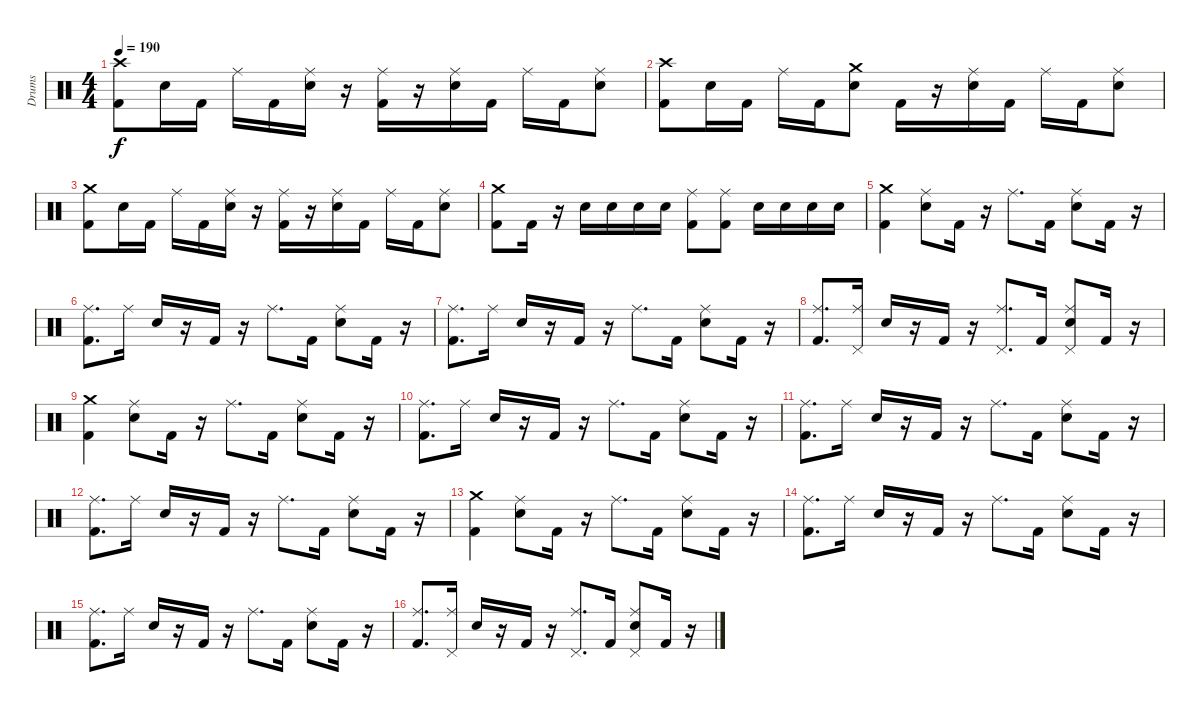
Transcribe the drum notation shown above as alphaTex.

\track ("Drums" "Drums") {instrument percussion}
\staff {score}
\articulation defaults
\ts (4 4)
\tempo 190
\clef neutral
\ks c
("Kick (hit) 2" "Crash high (hit)").8{dy f} "Electric Snare (hit)".16 "Kick (hit) 2".16 "Ride (middle)".16 "Kick (hit) 2".16 ("Electric Snare (hit)" "Ride (middle)").16 r.16 ("Kick (hit) 2" "Ride (middle)").16 r.16 ("Electric Snare (hit)" "Ride (middle)").16 "Kick (hit) 2".16 "Ride (middle)".16 "Kick (hit) 2".16 ("Electric Snare (hit)" "Ride (middle)").8 |
("Kick (hit) 2" "Crash high (hit)").8 "Electric Snare (hit)".16 "Kick (hit) 2".16 "Ride (middle)".16 "Kick (hit) 2".16 ("Electric Snare (hit)" "Crash medium (hit)").8 "Kick (hit) 2".16 r.16 ("Electric Snare (hit)" "Ride (middle)").16 "Kick (hit) 2".16 "Ride (middle)".16 "Kick (hit) 2".16 ("Electric Snare (hit)" "Ride (middle)").8 |
("Kick (hit) 2" "Crash medium (hit)").8 "Electric Snare (hit)".16 "Kick (hit) 2".16 "Ride (middle)".16 "Kick (hit) 2".16 ("Electric Snare (hit)" "Ride (middle)").16 r.16 ("Kick (hit) 2" "Ride (middle)").16 r.16 ("Electric Snare (hit)" "Ride (middle)").16 "Kick (hit) 2".16 "Ride (middle)".16 "Kick (hit) 2".16 ("Electric Snare (hit)" "Ride (middle)").8 |
("Kick (hit) 2" "Crash medium (hit)").8 "Kick (hit) 2".16 r.16 "Electric Snare (hit)".16 "Electric Snare (hit)".16 "Electric Snare (hit)".16 "Electric Snare (hit)".16 ("Kick (hit) 2" "Ride (middle)").8 ("Kick (hit) 2" "Ride (middle)").8 "Electric Snare (hit)".16 "Electric Snare (hit)".16 "Electric Snare (hit)".16 "Electric Snare (hit)".16 |
("Kick (hit) 2" "Crash medium (hit)").4 ("Electric Snare (hit)" "Ride (middle)").8 "Kick (hit) 2".16 r.16 "Ride (middle)".8{d} "Kick (hit) 2".16 ("Electric Snare (hit)" "Ride (middle)").8 "Kick (hit) 2".16 r.16 |
("Kick (hit) 2" "Ride (middle)").8{d} "Ride (middle)".16 "Electric Snare (hit)".16 r.16 "Kick (hit) 2".16 r.16 "Ride (middle)".8{d} "Kick (hit) 2".16 ("Electric Snare (hit)" "Ride (middle)").8 "Kick (hit) 2".16 r.16 |
("Kick (hit) 2" "Ride (middle)").8{d} "Ride (middle)".16 "Electric Snare (hit)".16 r.16 "Kick (hit) 2".16 r.16 "Ride (middle)".8{d} "Kick (hit) 2".16 ("Electric Snare (hit)" "Ride (middle)").8 "Kick (hit) 2".16 r.16 |
("Kick (hit) 2" "Ride (middle)").8{d} ("Ride (middle)" "Pedal Hi-Hat (hit)").16 "Electric Snare (hit)".16 r.16 "Kick (hit) 2".16 r.16 ("Ride (middle)" "Pedal Hi-Hat (hit)").8{d} "Kick (hit) 2".16 ("Electric Snare (hit)" "Ride (middle)" "Pedal Hi-Hat (hit)").8 "Kick (hit) 2".16 r.16 |
("Kick (hit) 2" "Crash medium (hit)").4 ("Electric Snare (hit)" "Ride (middle)").8 "Kick (hit) 2".16 r.16 "Ride (middle)".8{d} "Kick (hit) 2".16 ("Electric Snare (hit)" "Ride (middle)").8 "Kick (hit) 2".16 r.16 |
("Kick (hit) 2" "Ride (middle)").8{d} "Ride (middle)".16 "Electric Snare (hit)".16 r.16 "Kick (hit) 2".16 r.16 "Ride (middle)".8{d} "Kick (hit) 2".16 ("Electric Snare (hit)" "Ride (middle)").8 "Kick (hit) 2".16 r.16 |
("Kick (hit) 2" "Ride (middle)").8{d} "Ride (middle)".16 "Electric Snare (hit)".16 r.16 "Kick (hit) 2".16 r.16 "Ride (middle)".8{d} "Kick (hit) 2".16 ("Electric Snare (hit)" "Ride (middle)").8 "Kick (hit) 2".16 r.16 |
("Kick (hit) 2" "Ride (middle)").8{d} "Ride (middle)".16 "Electric Snare (hit)".16 r.16 "Kick (hit) 2".16 r.16 "Ride (middle)".8{d} "Kick (hit) 2".16 ("Electric Snare (hit)" "Ride (middle)").8 "Kick (hit) 2".16 r.16 |
("Kick (hit) 2" "Crash medium (hit)").4 ("Electric Snare (hit)" "Ride (middle)").8 "Kick (hit) 2".16 r.16 "Ride (middle)".8{d} "Kick (hit) 2".16 ("Electric Snare (hit)" "Ride (middle)").8 "Kick (hit) 2".16 r.16 |
("Kick (hit) 2" "Ride (middle)").8{d} "Ride (middle)".16 "Electric Snare (hit)".16 r.16 "Kick (hit) 2".16 r.16 "Ride (middle)".8{d} "Kick (hit) 2".16 ("Electric Snare (hit)" "Ride (middle)").8 "Kick (hit) 2".16 r.16 |
("Kick (hit) 2" "Ride (middle)").8{d} "Ride (middle)".16 "Electric Snare (hit)".16 r.16 "Kick (hit) 2".16 r.16 "Ride (middle)".8{d} "Kick (hit) 2".16 ("Electric Snare (hit)" "Ride (middle)").8 "Kick (hit) 2".16 r.16 |
("Kick (hit) 2" "Ride (middle)").8{d} ("Ride (middle)" "Pedal Hi-Hat (hit)").16 "Electric Snare (hit)".16 r.16 "Kick (hit) 2".16 r.16 ("Ride (middle)" "Pedal Hi-Hat (hit)").8{d} "Kick (hit) 2".16 ("Electric Snare (hit)" "Ride (middle)" "Pedal Hi-Hat (hit)").8 "Kick (hit) 2".16 r.16
